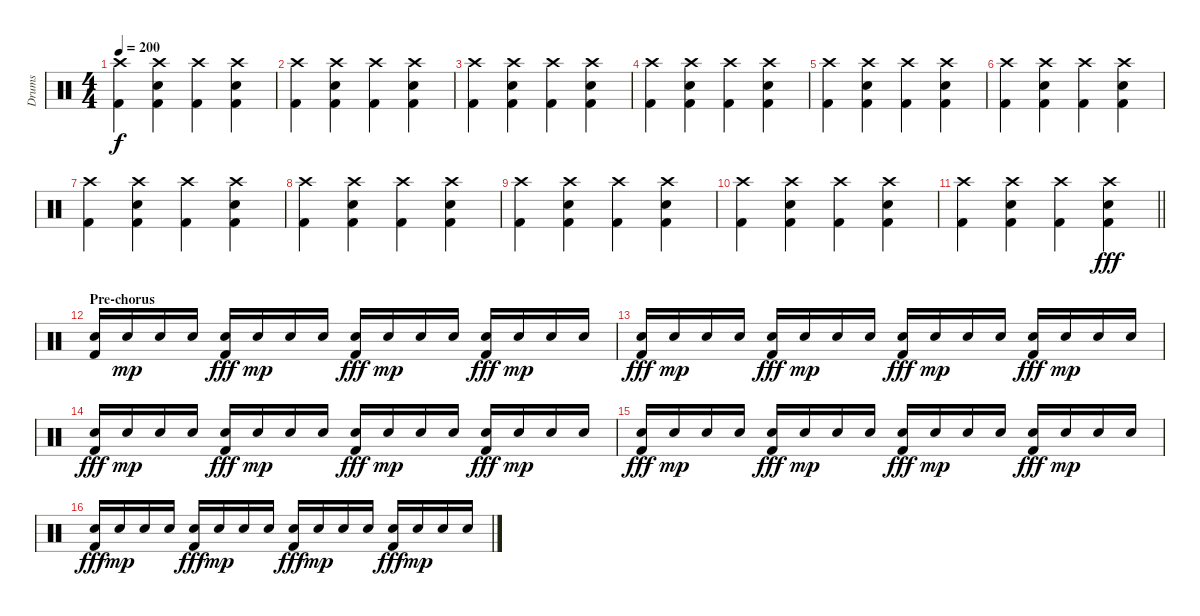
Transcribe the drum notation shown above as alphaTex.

\track ("Drums" "Drums") {instrument percussion}
\staff {score}
\articulation defaults
\ts (4 4)
\tempo 200
\clef neutral
\ks c
("Crash high (hit)" "Kick (hit) 2").4{dy f} ("Crash high (hit)" "Snare (hit) 2" "Kick (hit) 2").4 ("Crash high (hit)" "Kick (hit) 2").4 ("Crash high (hit)" "Snare (hit) 2" "Kick (hit) 2").4 |
("Crash high (hit)" "Kick (hit) 2").4 ("Crash high (hit)" "Snare (hit) 2" "Kick (hit) 2").4 ("Crash high (hit)" "Kick (hit) 2").4 ("Crash high (hit)" "Snare (hit) 2" "Kick (hit) 2").4 |
("Crash high (hit)" "Kick (hit) 2").4 ("Crash high (hit)" "Snare (hit) 2" "Kick (hit) 2").4 ("Crash high (hit)" "Kick (hit) 2").4 ("Crash high (hit)" "Snare (hit) 2" "Kick (hit) 2").4 |
("Crash high (hit)" "Kick (hit) 2").4 ("Crash high (hit)" "Snare (hit) 2" "Kick (hit) 2").4 ("Crash high (hit)" "Kick (hit) 2").4 ("Crash high (hit)" "Snare (hit) 2" "Kick (hit) 2").4 |
("Crash high (hit)" "Kick (hit) 2").4 ("Crash high (hit)" "Snare (hit) 2" "Kick (hit) 2").4 ("Crash high (hit)" "Kick (hit) 2").4 ("Crash high (hit)" "Snare (hit) 2" "Kick (hit) 2").4 |
("Crash high (hit)" "Kick (hit) 2").4 ("Crash high (hit)" "Snare (hit) 2" "Kick (hit) 2").4 ("Crash high (hit)" "Kick (hit) 2").4 ("Crash high (hit)" "Snare (hit) 2" "Kick (hit) 2").4 |
("Crash high (hit)" "Kick (hit) 2").4 ("Crash high (hit)" "Snare (hit) 2" "Kick (hit) 2").4 ("Crash high (hit)" "Kick (hit) 2").4 ("Crash high (hit)" "Snare (hit) 2" "Kick (hit) 2").4 |
("Crash high (hit)" "Kick (hit) 2").4 ("Crash high (hit)" "Snare (hit) 2" "Kick (hit) 2").4 ("Crash high (hit)" "Kick (hit) 2").4 ("Crash high (hit)" "Snare (hit) 2" "Kick (hit) 2").4 |
("Crash high (hit)" "Kick (hit) 2").4 ("Crash high (hit)" "Snare (hit) 2" "Kick (hit) 2").4 ("Crash high (hit)" "Kick (hit) 2").4 ("Crash high (hit)" "Snare (hit) 2" "Kick (hit) 2").4 |
("Crash high (hit)" "Kick (hit) 2").4 ("Crash high (hit)" "Snare (hit) 2" "Kick (hit) 2").4 ("Crash high (hit)" "Kick (hit) 2").4 ("Crash high (hit)" "Snare (hit) 2" "Kick (hit) 2").4 |
\barLineRight lightlight
("Crash high (hit)" "Kick (hit) 2").4 ("Crash high (hit)" "Snare (hit) 2" "Kick (hit) 2").4 ("Crash high (hit)" "Kick (hit) 2").4 ("Crash high (hit)" "Snare (hit) 2" "Kick (hit) 2").4{dy fff} |
\section ("" "Pre-chorus")
("Snare (hit) 2" "Kick (hit) 2").16 "Snare (hit) 2".16{dy mp} "Snare (hit) 2".16 "Snare (hit) 2".16 ("Snare (hit) 2" "Kick (hit) 2").16{dy fff} "Snare (hit) 2".16{dy mp} "Snare (hit) 2".16 "Snare (hit) 2".16 ("Snare (hit) 2" "Kick (hit) 2").16{dy fff} "Snare (hit) 2".16{dy mp} "Snare (hit) 2".16 "Snare (hit) 2".16 ("Snare (hit) 2" "Kick (hit) 2").16{dy fff} "Snare (hit) 2".16{dy mp} "Snare (hit) 2".16 "Snare (hit) 2".16 |
("Snare (hit) 2" "Kick (hit) 2").16{dy fff} "Snare (hit) 2".16{dy mp} "Snare (hit) 2".16 "Snare (hit) 2".16 ("Snare (hit) 2" "Kick (hit) 2").16{dy fff} "Snare (hit) 2".16{dy mp} "Snare (hit) 2".16 "Snare (hit) 2".16 ("Snare (hit) 2" "Kick (hit) 2").16{dy fff} "Snare (hit) 2".16{dy mp} "Snare (hit) 2".16 "Snare (hit) 2".16 ("Snare (hit) 2" "Kick (hit) 2").16{dy fff} "Snare (hit) 2".16{dy mp} "Snare (hit) 2".16 "Snare (hit) 2".16 |
("Snare (hit) 2" "Kick (hit) 2").16{dy fff} "Snare (hit) 2".16{dy mp} "Snare (hit) 2".16 "Snare (hit) 2".16 ("Snare (hit) 2" "Kick (hit) 2").16{dy fff} "Snare (hit) 2".16{dy mp} "Snare (hit) 2".16 "Snare (hit) 2".16 ("Snare (hit) 2" "Kick (hit) 2").16{dy fff} "Snare (hit) 2".16{dy mp} "Snare (hit) 2".16 "Snare (hit) 2".16 ("Snare (hit) 2" "Kick (hit) 2").16{dy fff} "Snare (hit) 2".16{dy mp} "Snare (hit) 2".16 "Snare (hit) 2".16 |
("Snare (hit) 2" "Kick (hit) 2").16{dy fff} "Snare (hit) 2".16{dy mp} "Snare (hit) 2".16 "Snare (hit) 2".16 ("Snare (hit) 2" "Kick (hit) 2").16{dy fff} "Snare (hit) 2".16{dy mp} "Snare (hit) 2".16 "Snare (hit) 2".16 ("Snare (hit) 2" "Kick (hit) 2").16{dy fff} "Snare (hit) 2".16{dy mp} "Snare (hit) 2".16 "Snare (hit) 2".16 ("Snare (hit) 2" "Kick (hit) 2").16{dy fff} "Snare (hit) 2".16{dy mp} "Snare (hit) 2".16 "Snare (hit) 2".16 |
("Snare (hit) 2" "Kick (hit) 2").16{dy fff} "Snare (hit) 2".16{dy mp} "Snare (hit) 2".16 "Snare (hit) 2".16 ("Snare (hit) 2" "Kick (hit) 2").16{dy fff} "Snare (hit) 2".16{dy mp} "Snare (hit) 2".16 "Snare (hit) 2".16 ("Snare (hit) 2" "Kick (hit) 2").16{dy fff} "Snare (hit) 2".16{dy mp} "Snare (hit) 2".16 "Snare (hit) 2".16 ("Snare (hit) 2" "Kick (hit) 2").16{dy fff} "Snare (hit) 2".16{dy mp} "Snare (hit) 2".16 "Snare (hit) 2".16
